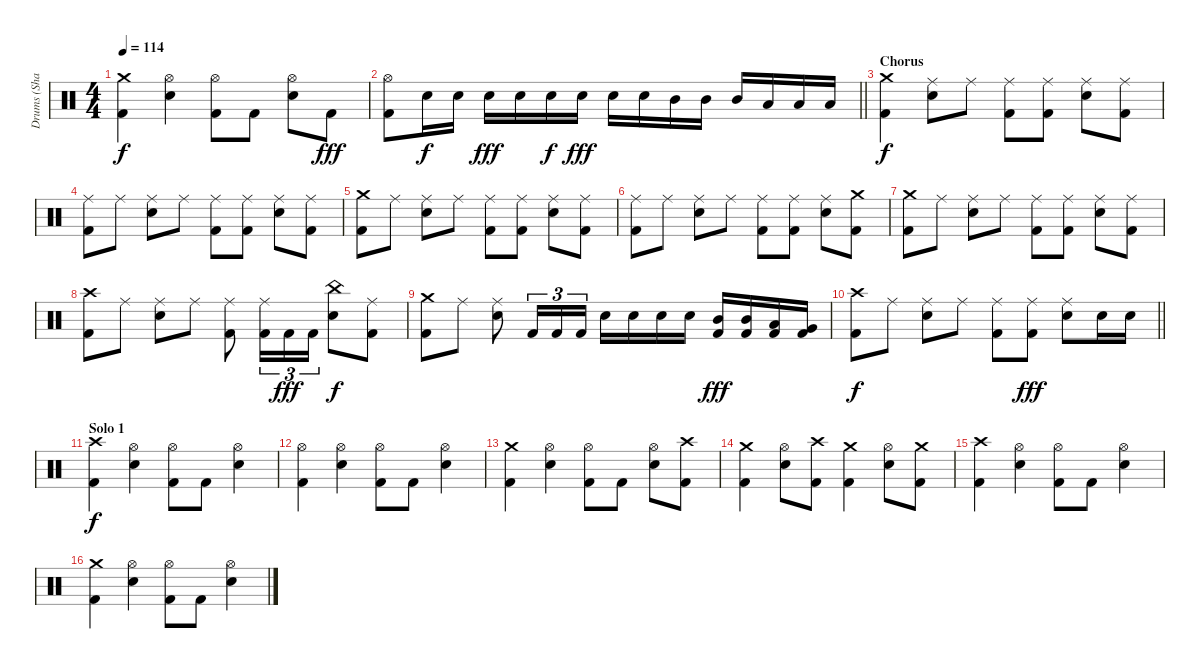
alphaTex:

\track ("Drums (Shawn)" "Drums (Sha") {instrument percussion}
\staff {score}
\articulation defaults
\ts (4 4)
\tempo 114
\clef neutral
\ks c
("Crash medium (hit)" "Kick (hit) 2").4{dy f} ("Hi-Hat (open)" "Snare (hit) 2").4 ("Hi-Hat (open)" "Kick (hit) 2").8 "Kick (hit) 2".8 ("Hi-Hat (open)" "Snare (hit) 2").8 "Kick (hit) 2".8{dy fff} |
\barLineRight lightlight
("Hi-Hat (open)" "Kick (hit) 2").8 "Snare (hit) 2".16{dy f} "Snare (hit) 2".16 "Snare (hit) 2".16{dy fff} "Snare (hit) 2".16 "Snare (hit) 2".16{dy f} "Snare (hit) 2".16{dy fff} "Snare (hit) 2".16 "Snare (hit) 2".16 "Mid Tom (hit)".16 "Mid Tom (hit)".16 "Mid Tom (hit)".16 "Low Tom (hit)".16 "Low Tom (hit)".16 "Low Tom (hit)".16 |
\section ("" "Chorus")
("Crash medium (hit)" "Kick (hit) 2").4{dy f} ("Ride (middle)" "Snare (hit) 2").8 "Ride (middle)".8 ("Ride (middle)" "Kick (hit) 2").8 ("Ride (middle)" "Kick (hit) 2").8 ("Ride (middle)" "Snare (hit) 2").8 ("Ride (middle)" "Kick (hit) 2").8 |
("Ride (middle)" "Kick (hit) 2").8 "Ride (middle)".8 ("Ride (middle)" "Snare (hit) 2").8 "Ride (middle)".8 ("Ride (middle)" "Kick (hit) 2").8 ("Ride (middle)" "Kick (hit) 2").8 ("Ride (middle)" "Snare (hit) 2").8 ("Ride (middle)" "Kick (hit) 2").8 |
("Crash medium (hit)" "Kick (hit) 2").8 "Ride (middle)".8 ("Ride (middle)" "Snare (hit) 2").8 "Ride (middle)".8 ("Ride (middle)" "Kick (hit) 2").8 ("Ride (middle)" "Kick (hit) 2").8 ("Ride (middle)" "Snare (hit) 2").8 ("Ride (middle)" "Kick (hit) 2").8 |
("Ride (middle)" "Kick (hit) 2").8 "Ride (middle)".8 ("Ride (middle)" "Snare (hit) 2").8 "Ride (middle)".8 ("Ride (middle)" "Kick (hit) 2").8 ("Ride (middle)" "Kick (hit) 2").8 ("Ride (middle)" "Snare (hit) 2").8 ("Crash medium (hit)" "Kick (hit) 2").8 |
("Crash medium (hit)" "Kick (hit) 2").8 "Ride (middle)".8 ("Ride (middle)" "Snare (hit) 2").8 "Ride (middle)".8 ("Ride (middle)" "Kick (hit) 2").8 ("Ride (middle)" "Kick (hit) 2").8 ("Ride (middle)" "Snare (hit) 2").8 ("Ride (middle)" "Kick (hit) 2").8 |
("Crash high (hit)" "Kick (hit) 2").8 "Ride (middle)".8 ("Ride (middle)" "Snare (hit) 2").8 "Ride (middle)".8 ("Ride (middle)" "Kick (hit) 2").8 ("Ride (middle)" "Kick (hit) 2").16{tu (3 2)} "Kick (hit) 2".16{tu (3 2) dy fff} "Kick (hit) 2".16{tu (3 2)} ("China (hit)" "Snare (hit) 2").8{dy f} ("Ride (middle)" "Kick (hit) 2").8 |
("Crash medium (hit)" "Kick (hit) 2").8 "Ride (middle)".8 ("Ride (middle)" "Snare (hit) 2").8 "Kick (hit) 2".16{tu (3 2)} "Kick (hit) 2".16{tu (3 2)} "Kick (hit) 2".16{tu (3 2)} "Snare (hit) 2".16 "Snare (hit) 2".16 "Snare (hit) 2".16 "Snare (hit) 2".16 ("Mid Tom (hit)" "Kick (hit) 2").16{dy fff} ("Mid Tom (hit)" "Kick (hit) 2").16 ("Low Tom (hit)" "Kick (hit) 2").16 ("Very Low Tom (hit)" "Kick (hit) 2").16 |
\barLineRight lightlight
("Crash high (hit)" "Kick (hit) 2").8{dy f} "Ride (middle)".8 ("Ride (middle)" "Snare (hit) 2").8 "Ride (middle)".8 ("Ride (middle)" "Kick (hit) 2").8 ("Ride (middle)" "Kick (hit) 2").8{dy fff} ("Ride (middle)" "Snare (hit) 2").8 "Snare (hit) 2".16 "Snare (hit) 2".16 |
\section ("" "Solo 1")
("Crash high (hit)" "Kick (hit) 2").4{dy f} ("Hi-Hat (open)" "Snare (hit) 2").4 ("Hi-Hat (open)" "Kick (hit) 2").8 "Kick (hit) 2".8 ("Hi-Hat (open)" "Snare (hit) 2").4 |
("Hi-Hat (open)" "Kick (hit) 2").4 ("Hi-Hat (open)" "Snare (hit) 2").4 ("Hi-Hat (open)" "Kick (hit) 2").8 "Kick (hit) 2".8 ("Hi-Hat (open)" "Snare (hit) 2").4 |
("Crash medium (hit)" "Kick (hit) 2").4 ("Hi-Hat (open)" "Snare (hit) 2").4 ("Hi-Hat (open)" "Kick (hit) 2").8 "Kick (hit) 2".8 ("Hi-Hat (open)" "Snare (hit) 2").8 ("Crash high (hit)" "Kick (hit) 2").8 |
("Crash medium (hit)" "Kick (hit) 2").4 ("Hi-Hat (open)" "Snare (hit) 2").8 ("Crash high (hit)" "Kick (hit) 2").8 ("Crash medium (hit)" "Kick (hit) 2").4 ("Hi-Hat (open)" "Snare (hit) 2").8 ("Crash medium (hit)" "Kick (hit) 2").8 |
("Crash high (hit)" "Kick (hit) 2").4 ("Hi-Hat (open)" "Snare (hit) 2").4 ("Hi-Hat (open)" "Kick (hit) 2").8 "Kick (hit) 2".8 ("Hi-Hat (open)" "Snare (hit) 2").4 |
("Crash medium (hit)" "Kick (hit) 2").4 ("Hi-Hat (open)" "Snare (hit) 2").4 ("Hi-Hat (open)" "Kick (hit) 2").8 "Kick (hit) 2".8 ("Hi-Hat (open)" "Snare (hit) 2").4
